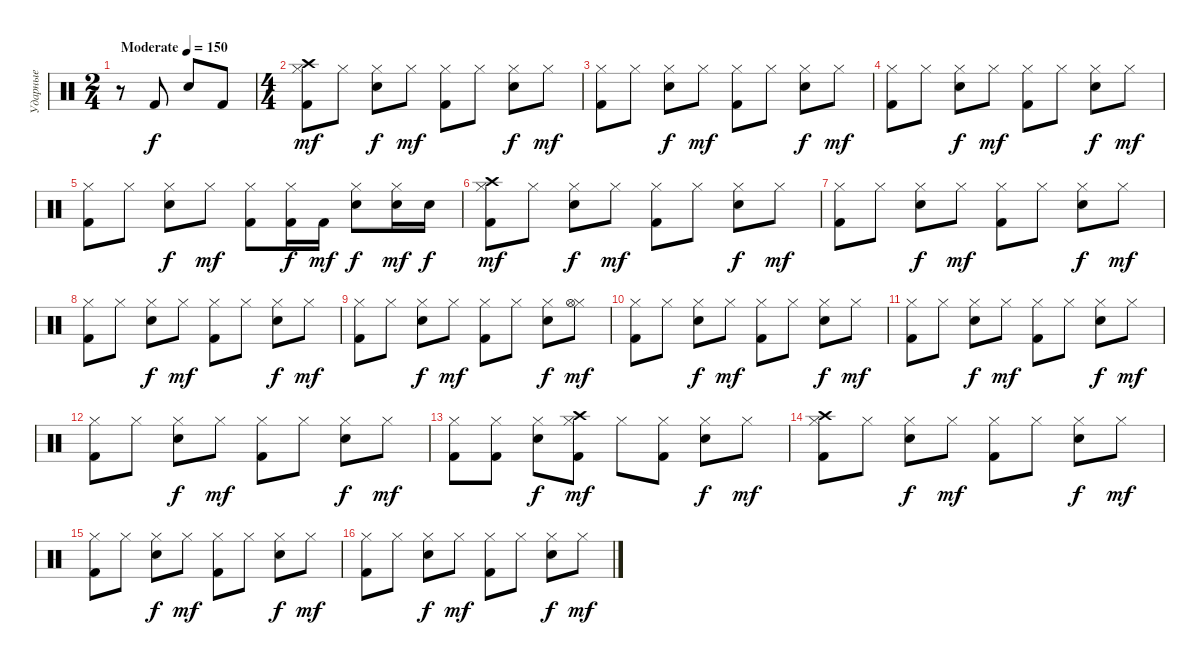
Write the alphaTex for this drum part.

\track ("Ударные" "Ударные") {instrument percussion}
\staff {score}
\articulation defaults
\ts (2 4)
\tempo (150 "Moderate")
\clef neutral
\ks c
r.8{dy f} "Kick (hit) 2".8 "Snare (hit) 2".8 "Kick (hit) 2".8 |
\ts (4 4)
("Kick (hit) 2" "Crash high (hit)" "Hi-Hat (closed)").8{dy mf} "Hi-Hat (closed)".8 ("Snare (hit) 2" "Hi-Hat (closed)").8{dy f} "Hi-Hat (closed)".8{dy mf} ("Kick (hit) 2" "Hi-Hat (closed)").8 "Hi-Hat (closed)".8 ("Snare (hit) 2" "Hi-Hat (closed)").8{dy f} "Hi-Hat (closed)".8{dy mf} |
("Kick (hit) 2" "Hi-Hat (closed)").8 "Hi-Hat (closed)".8 ("Snare (hit) 2" "Hi-Hat (closed)").8{dy f} "Hi-Hat (closed)".8{dy mf} ("Kick (hit) 2" "Hi-Hat (closed)").8 "Hi-Hat (closed)".8 ("Snare (hit) 2" "Hi-Hat (closed)").8{dy f} "Hi-Hat (closed)".8{dy mf} |
("Kick (hit) 2" "Hi-Hat (closed)").8 "Hi-Hat (closed)".8 ("Snare (hit) 2" "Hi-Hat (closed)").8{dy f} "Hi-Hat (closed)".8{dy mf} ("Kick (hit) 2" "Hi-Hat (closed)").8 "Hi-Hat (closed)".8 ("Snare (hit) 2" "Hi-Hat (closed)").8{dy f} "Hi-Hat (closed)".8{dy mf} |
("Kick (hit) 2" "Hi-Hat (closed)").8 "Hi-Hat (closed)".8 ("Snare (hit) 2" "Hi-Hat (closed)").8{dy f} "Hi-Hat (closed)".8{dy mf} ("Kick (hit) 2" "Hi-Hat (closed)").8 ("Kick (hit) 2" "Hi-Hat (closed)").16{dy f} "Kick (hit) 2".16{dy mf} ("Snare (hit) 2" "Hi-Hat (closed)").8{dy f} ("Snare (hit) 2" "Hi-Hat (closed)").16{dy mf} "Snare (hit) 2".16{dy f} |
("Kick (hit) 2" "Crash high (hit)" "Hi-Hat (closed)").8{dy mf} "Hi-Hat (closed)".8 ("Snare (hit) 2" "Hi-Hat (closed)").8{dy f} "Hi-Hat (closed)".8{dy mf} ("Kick (hit) 2" "Hi-Hat (closed)").8 "Hi-Hat (closed)".8 ("Snare (hit) 2" "Hi-Hat (closed)").8{dy f} "Hi-Hat (closed)".8{dy mf} |
("Kick (hit) 2" "Hi-Hat (closed)").8 "Hi-Hat (closed)".8 ("Snare (hit) 2" "Hi-Hat (closed)").8{dy f} "Hi-Hat (closed)".8{dy mf} ("Kick (hit) 2" "Hi-Hat (closed)").8 "Hi-Hat (closed)".8 ("Snare (hit) 2" "Hi-Hat (closed)").8{dy f} "Hi-Hat (closed)".8{dy mf} |
("Kick (hit) 2" "Hi-Hat (closed)").8 "Hi-Hat (closed)".8 ("Snare (hit) 2" "Hi-Hat (closed)").8{dy f} "Hi-Hat (closed)".8{dy mf} ("Kick (hit) 2" "Hi-Hat (closed)").8 "Hi-Hat (closed)".8 ("Snare (hit) 2" "Hi-Hat (closed)").8{dy f} "Hi-Hat (closed)".8{dy mf} |
("Kick (hit) 2" "Hi-Hat (closed)").8 "Hi-Hat (closed)".8 ("Snare (hit) 2" "Hi-Hat (closed)").8{dy f} "Hi-Hat (closed)".8{dy mf} ("Kick (hit) 2" "Hi-Hat (closed)").8 "Hi-Hat (closed)".8 ("Snare (hit) 2" "Hi-Hat (closed)").8{dy f} ("Hi-Hat (closed)" "Hi-Hat (open)").8{dy mf} |
("Kick (hit) 2" "Hi-Hat (closed)").8 "Hi-Hat (closed)".8 ("Snare (hit) 2" "Hi-Hat (closed)").8{dy f} "Hi-Hat (closed)".8{dy mf} ("Kick (hit) 2" "Hi-Hat (closed)").8 "Hi-Hat (closed)".8 ("Snare (hit) 2" "Hi-Hat (closed)").8{dy f} "Hi-Hat (closed)".8{dy mf} |
("Kick (hit) 2" "Hi-Hat (closed)").8 "Hi-Hat (closed)".8 ("Snare (hit) 2" "Hi-Hat (closed)").8{dy f} "Hi-Hat (closed)".8{dy mf} ("Kick (hit) 2" "Hi-Hat (closed)").8 "Hi-Hat (closed)".8 ("Snare (hit) 2" "Hi-Hat (closed)").8{dy f} "Hi-Hat (closed)".8{dy mf} |
("Kick (hit) 2" "Hi-Hat (closed)").8 "Hi-Hat (closed)".8 ("Snare (hit) 2" "Hi-Hat (closed)").8{dy f} "Hi-Hat (closed)".8{dy mf} ("Kick (hit) 2" "Hi-Hat (closed)").8 "Hi-Hat (closed)".8 ("Snare (hit) 2" "Hi-Hat (closed)").8{dy f} "Hi-Hat (closed)".8{dy mf} |
("Kick (hit) 2" "Hi-Hat (closed)").8 ("Kick (hit) 2" "Hi-Hat (closed)").8 ("Snare (hit) 2" "Hi-Hat (closed)").8{dy f} ("Kick (hit) 2" "Crash high (hit)" "Hi-Hat (closed)").8{dy mf} "Hi-Hat (closed)".8 ("Kick (hit) 2" "Hi-Hat (closed)").8 ("Snare (hit) 2" "Hi-Hat (closed)").8{dy f} "Hi-Hat (closed)".8{dy mf} |
("Kick (hit) 2" "Crash high (hit)" "Hi-Hat (closed)").8 "Hi-Hat (closed)".8 ("Snare (hit) 2" "Hi-Hat (closed)").8{dy f} "Hi-Hat (closed)".8{dy mf} ("Kick (hit) 2" "Hi-Hat (closed)").8 "Hi-Hat (closed)".8 ("Snare (hit) 2" "Hi-Hat (closed)").8{dy f} "Hi-Hat (closed)".8{dy mf} |
("Kick (hit) 2" "Hi-Hat (closed)").8 "Hi-Hat (closed)".8 ("Snare (hit) 2" "Hi-Hat (closed)").8{dy f} "Hi-Hat (closed)".8{dy mf} ("Kick (hit) 2" "Hi-Hat (closed)").8 "Hi-Hat (closed)".8 ("Snare (hit) 2" "Hi-Hat (closed)").8{dy f} "Hi-Hat (closed)".8{dy mf} |
("Kick (hit) 2" "Hi-Hat (closed)").8 "Hi-Hat (closed)".8 ("Snare (hit) 2" "Hi-Hat (closed)").8{dy f} "Hi-Hat (closed)".8{dy mf} ("Kick (hit) 2" "Hi-Hat (closed)").8 "Hi-Hat (closed)".8 ("Snare (hit) 2" "Hi-Hat (closed)").8{dy f} "Hi-Hat (closed)".8{dy mf}
